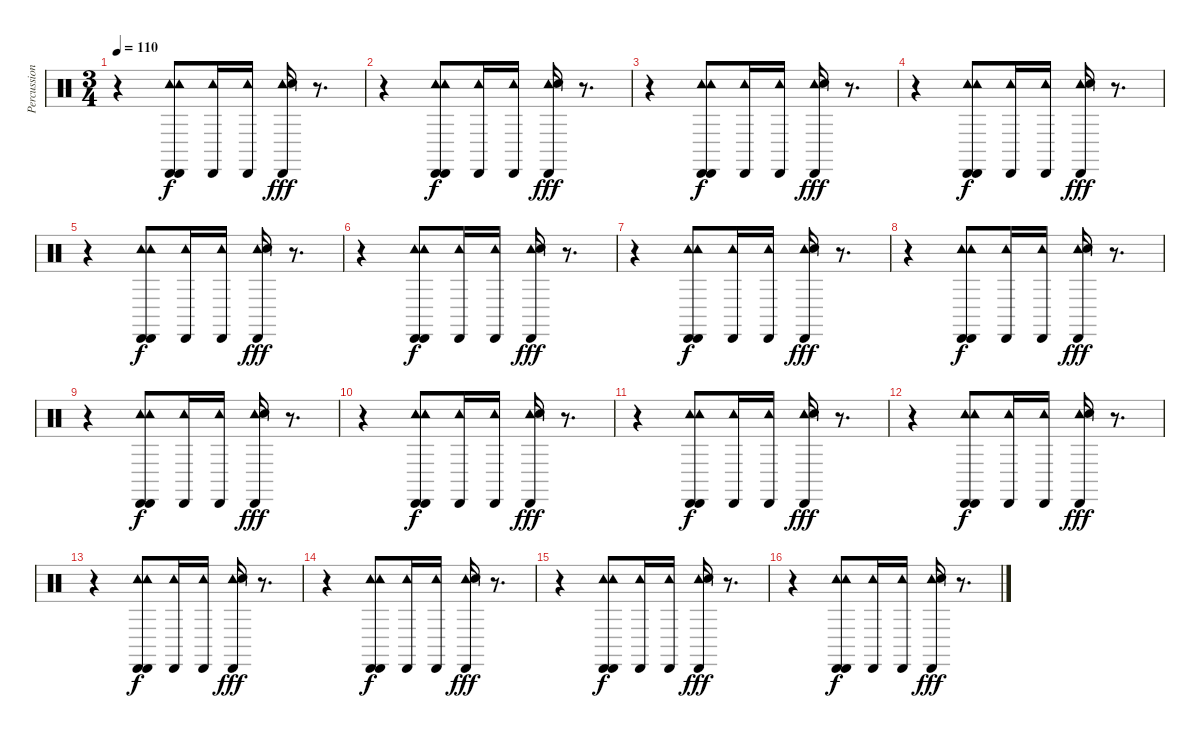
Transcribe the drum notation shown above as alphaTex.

\track ("Percussion" "Percussion") {instrument percussion}
\staff {score}
\articulation defaults
\ts (3 4)
\tempo 110
\clef neutral
\ks c
r.4{dy f} ("Cabasa (hit)" "Cabasa (hit)" "Tambourine (hit)" "Tambourine (hit)").8 ("Tambourine (hit)" "Cabasa (hit)").16 ("Tambourine (hit)" "Cabasa (hit)").16 ("Tambourine (hit)" "Cabasa (hit)" "Electric Snare (hit)").16{dy fff} r.8{d} |
r.4 ("Cabasa (hit)" "Cabasa (hit)" "Tambourine (hit)" "Tambourine (hit)").8{dy f} ("Tambourine (hit)" "Cabasa (hit)").16 ("Tambourine (hit)" "Cabasa (hit)").16 ("Tambourine (hit)" "Cabasa (hit)" "Electric Snare (hit)").16{dy fff} r.8{d} |
r.4 ("Cabasa (hit)" "Cabasa (hit)" "Tambourine (hit)" "Tambourine (hit)").8{dy f} ("Tambourine (hit)" "Cabasa (hit)").16 ("Tambourine (hit)" "Cabasa (hit)").16 ("Tambourine (hit)" "Cabasa (hit)" "Electric Snare (hit)").16{dy fff} r.8{d} |
r.4 ("Cabasa (hit)" "Cabasa (hit)" "Tambourine (hit)" "Tambourine (hit)").8{dy f} ("Tambourine (hit)" "Cabasa (hit)").16 ("Tambourine (hit)" "Cabasa (hit)").16 ("Tambourine (hit)" "Cabasa (hit)" "Electric Snare (hit)").16{dy fff} r.8{d} |
r.4 ("Cabasa (hit)" "Cabasa (hit)" "Tambourine (hit)" "Tambourine (hit)").8{dy f volume 8} ("Tambourine (hit)" "Cabasa (hit)").16 ("Tambourine (hit)" "Cabasa (hit)").16 ("Tambourine (hit)" "Cabasa (hit)" "Electric Snare (hit)").16{dy fff} r.8{d} |
r.4 ("Cabasa (hit)" "Cabasa (hit)" "Tambourine (hit)" "Tambourine (hit)").8{dy f} ("Tambourine (hit)" "Cabasa (hit)").16 ("Tambourine (hit)" "Cabasa (hit)").16 ("Tambourine (hit)" "Cabasa (hit)" "Electric Snare (hit)").16{dy fff} r.8{d} |
r.4 ("Cabasa (hit)" "Cabasa (hit)" "Tambourine (hit)" "Tambourine (hit)").8{dy f} ("Tambourine (hit)" "Cabasa (hit)").16 ("Tambourine (hit)" "Cabasa (hit)").16 ("Tambourine (hit)" "Cabasa (hit)" "Electric Snare (hit)").16{dy fff} r.8{d} |
r.4 ("Cabasa (hit)" "Cabasa (hit)" "Tambourine (hit)" "Tambourine (hit)").8{dy f} ("Tambourine (hit)" "Cabasa (hit)").16 ("Tambourine (hit)" "Cabasa (hit)").16 ("Tambourine (hit)" "Cabasa (hit)" "Electric Snare (hit)").16{dy fff} r.8{d} |
r.4 ("Cabasa (hit)" "Cabasa (hit)" "Tambourine (hit)" "Tambourine (hit)").8{dy f} ("Tambourine (hit)" "Cabasa (hit)").16 ("Tambourine (hit)" "Cabasa (hit)").16 ("Tambourine (hit)" "Cabasa (hit)" "Electric Snare (hit)").16{dy fff} r.8{d} |
r.4 ("Cabasa (hit)" "Cabasa (hit)" "Tambourine (hit)" "Tambourine (hit)").8{dy f} ("Tambourine (hit)" "Cabasa (hit)").16 ("Tambourine (hit)" "Cabasa (hit)").16 ("Tambourine (hit)" "Cabasa (hit)" "Electric Snare (hit)").16{dy fff} r.8{d} |
r.4 ("Cabasa (hit)" "Cabasa (hit)" "Tambourine (hit)" "Tambourine (hit)").8{dy f} ("Tambourine (hit)" "Cabasa (hit)").16 ("Tambourine (hit)" "Cabasa (hit)").16 ("Tambourine (hit)" "Cabasa (hit)" "Electric Snare (hit)").16{dy fff} r.8{d} |
r.4 ("Cabasa (hit)" "Cabasa (hit)" "Tambourine (hit)" "Tambourine (hit)").8{dy f} ("Tambourine (hit)" "Cabasa (hit)").16 ("Tambourine (hit)" "Cabasa (hit)").16 ("Tambourine (hit)" "Cabasa (hit)" "Electric Snare (hit)").16{dy fff} r.8{d} |
r.4 ("Cabasa (hit)" "Cabasa (hit)" "Tambourine (hit)" "Tambourine (hit)").8{dy f} ("Tambourine (hit)" "Cabasa (hit)").16 ("Tambourine (hit)" "Cabasa (hit)").16 ("Tambourine (hit)" "Cabasa (hit)" "Electric Snare (hit)").16{dy fff} r.8{d} |
r.4 ("Cabasa (hit)" "Cabasa (hit)" "Tambourine (hit)" "Tambourine (hit)").8{dy f} ("Tambourine (hit)" "Cabasa (hit)").16 ("Tambourine (hit)" "Cabasa (hit)").16 ("Tambourine (hit)" "Cabasa (hit)" "Electric Snare (hit)").16{dy fff} r.8{d} |
r.4 ("Cabasa (hit)" "Cabasa (hit)" "Tambourine (hit)" "Tambourine (hit)").8{dy f} ("Tambourine (hit)" "Cabasa (hit)").16 ("Tambourine (hit)" "Cabasa (hit)").16 ("Tambourine (hit)" "Cabasa (hit)" "Electric Snare (hit)").16{dy fff} r.8{d} |
r.4 ("Cabasa (hit)" "Cabasa (hit)" "Tambourine (hit)" "Tambourine (hit)").8{dy f} ("Tambourine (hit)" "Cabasa (hit)").16 ("Tambourine (hit)" "Cabasa (hit)").16 ("Tambourine (hit)" "Cabasa (hit)" "Electric Snare (hit)").16{dy fff} r.8{d}
